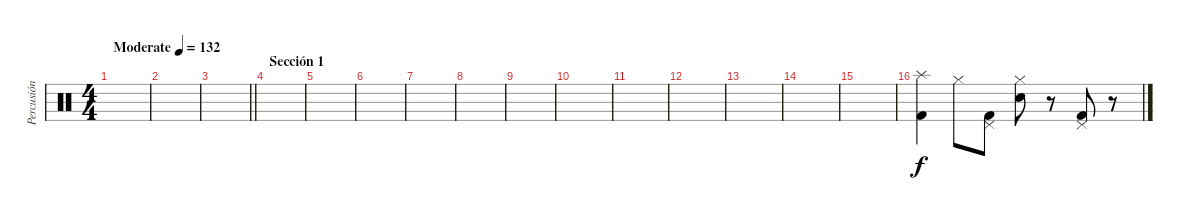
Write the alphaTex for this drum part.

\track ("Percusión" "Percusión") {instrument percussion}
\staff {score}
\articulation defaults
\ts (4 4)
\tempo (132 "Moderate")
\clef neutral
\ks c
|
|
\barLineRight lightlight
|
\section ("" "Sección 1")
|
|
|
|
|
|
|
|
|
|
|
|
("Splash (hit)" "Kick (hit) 2").4 "Hi-Hat (closed)".8 ("Pedal Hi-Hat (hit)" "Kick (hit) 2").8 ("Hi-Hat (closed)" "Snare (hit) 2").8 r.8 ("Pedal Hi-Hat (hit)" "Kick (hit) 2").8 r.8
